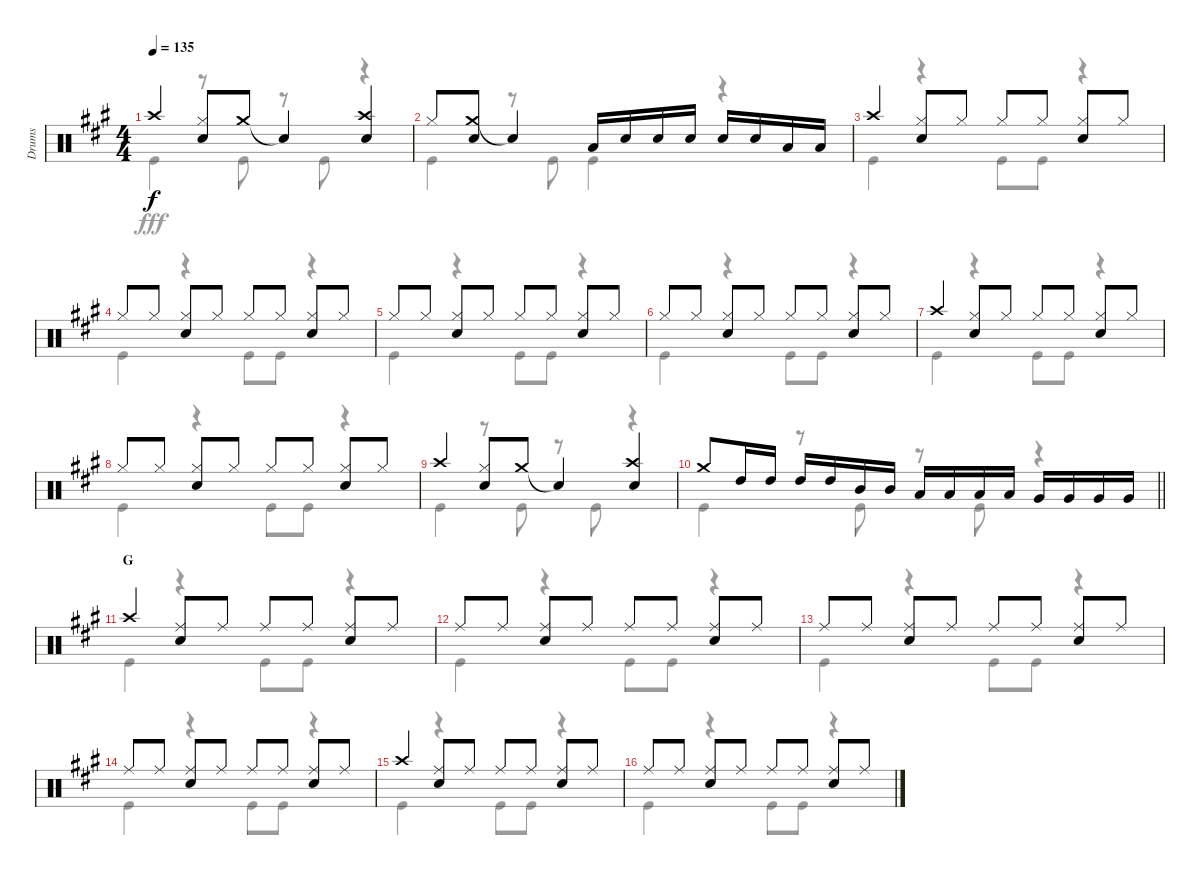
\track ("Drums" "Drums") {instrument percussion}
\staff {score}
\articulation defaults
\voice
\ts (4 4)
\tempo 135
\clef neutral
\ks a "Crash high (hit)".4{dy f}
("Hi-Hat (closed)" "Snare (hit) 2").8 "Crash medium (hit)".8 "Snare (hit)"{t}.4 ("Crash high (hit)" "Snare (hit) 2").4 |
"Hi-Hat (closed)".8 ("Crash medium (hit)" "Snare (hit) 2").8 "Snare (hit)"{t}.4 "Low Tom (hit)".16 "Snare (hit) 2".16 "Snare (hit) 2".16 "Snare (hit) 2".16 "Snare (hit) 2".16 "Snare (hit) 2".16 "Low Tom (hit)".16 "Low Tom (hit)".16 |
"Crash high (hit)".4 ("Hi-Hat (closed)" "Snare (hit) 2").8 "Hi-Hat (closed)".8 "Hi-Hat (closed)".8 "Hi-Hat (closed)".8 ("Hi-Hat (closed)" "Snare (hit) 2").8 "Hi-Hat (closed)".8 |
"Hi-Hat (closed)".8 "Hi-Hat (closed)".8 ("Hi-Hat (closed)" "Snare (hit) 2").8 "Hi-Hat (closed)".8 "Hi-Hat (closed)".8 "Hi-Hat (closed)".8 ("Hi-Hat (closed)" "Snare (hit) 2").8 "Hi-Hat (closed)".8 |
"Hi-Hat (closed)".8 "Hi-Hat (closed)".8 ("Hi-Hat (closed)" "Snare (hit) 2").8 "Hi-Hat (closed)".8 "Hi-Hat (closed)".8 "Hi-Hat (closed)".8 ("Hi-Hat (closed)" "Snare (hit) 2").8 "Hi-Hat (closed)".8 |
"Hi-Hat (closed)".8 "Hi-Hat (closed)".8 ("Hi-Hat (closed)" "Snare (hit) 2").8 "Hi-Hat (closed)".8 "Hi-Hat (closed)".8 "Hi-Hat (closed)".8 ("Hi-Hat (closed)" "Snare (hit) 2").8 "Hi-Hat (closed)".8 |
"Crash high (hit)".4 ("Hi-Hat (closed)" "Snare (hit) 2").8 "Hi-Hat (closed)".8 "Hi-Hat (closed)".8 "Hi-Hat (closed)".8 ("Hi-Hat (closed)" "Snare (hit) 2").8 "Hi-Hat (closed)".8 |
"Hi-Hat (closed)".8 "Hi-Hat (closed)".8 ("Hi-Hat (closed)" "Snare (hit) 2").8 "Hi-Hat (closed)".8 "Hi-Hat (closed)".8 "Hi-Hat (closed)".8 ("Hi-Hat (closed)" "Snare (hit) 2").8 "Hi-Hat (closed)".8 |
"Crash high (hit)".4 ("Hi-Hat (closed)" "Snare (hit) 2").8 "Crash medium (hit)".8 "Snare (hit)"{t}.4 ("Crash high (hit)" "Snare (hit) 2").4 |
\barLineRight lightlight "Crash medium (hit)".8 "High Tom (hit)".16 "High Tom (hit)".16 "High Tom (hit)".16 "High Tom (hit)".16 "Mid Tom (hit)".16 "Mid Tom (hit)".16 "Low Tom (hit)".16 "Low Tom (hit)".16 "Low Tom (hit)".16 "Low Tom (hit)".16 "Very Low Tom (hit)".16 "Very Low Tom (hit)".16 "Very Low Tom (hit)".16 "Very Low Tom (hit)".16
|
\section ("" "G")
"Crash high (hit)".4 ("Ride (middle)" "Snare (hit) 2").8 "Ride (middle)".8 "Ride (middle)".8 "Ride (middle)".8 ("Ride (middle)" "Snare (hit) 2").8 "Ride (middle)".8 |
"Ride (middle)".8 "Ride (middle)".8 ("Ride (middle)" "Snare (hit) 2").8 "Ride (middle)".8 "Ride (middle)".8 "Ride (middle)".8 ("Ride (middle)" "Snare (hit) 2").8 "Ride (middle)".8 |
"Ride (middle)".8 "Ride (middle)".8 ("Ride (middle)" "Snare (hit) 2").8 "Ride (middle)".8 "Ride (middle)".8 "Ride (middle)".8 ("Ride (middle)" "Snare (hit) 2").8 "Ride (middle)".8 |
"Ride (middle)".8 "Ride (middle)".8 ("Ride (middle)" "Snare (hit) 2").8 "Ride (middle)".8 "Ride (middle)".8 "Ride (middle)".8 ("Ride (middle)" "Snare (hit) 2").8 "Ride (middle)".8 |
"Crash high (hit)".4 ("Ride (middle)" "Snare (hit) 2").8 "Ride (middle)".8 "Ride (middle)".8 "Ride (middle)".8 ("Ride (middle)" "Snare (hit) 2").8 "Ride (middle)".8 |
"Ride (middle)".8 "Ride (middle)".8 ("Ride (middle)" "Snare (hit) 2").8 "Ride (middle)".8 "Ride (middle)".8 "Ride (middle)".8 ("Ride (middle)" "Snare (hit) 2").8 "Ride (middle)".8
\voice
\clef neutral
\ottava regular
\simile none
\ks a "Kick (hit)".4{dy fff}
r.8 "Kick (hit)".8 r.8 "Kick (hit)".8 r.4 |
"Kick (hit)".4 r.8 "Kick (hit)".8 "Kick (hit)".4 r.4 |
"Kick (hit)".4 r.4 "Kick (hit)".8 "Kick (hit)".8 r.4 |
"Kick (hit)".4 r.4 "Kick (hit)".8 "Kick (hit)".8 r.4 |
"Kick (hit)".4 r.4 "Kick (hit)".8 "Kick (hit)".8 r.4 |
"Kick (hit)".4 r.4 "Kick (hit)".8 "Kick (hit)".8 r.4 |
"Kick (hit)".4 r.4 "Kick (hit)".8 "Kick (hit)".8 r.4 |
"Kick (hit)".4 r.4 "Kick (hit)".8 "Kick (hit)".8 r.4 |
"Kick (hit)".4 r.8 "Kick (hit)".8 r.8 "Kick (hit)".8 r.4 |
\barLineRight lightlight "Kick (hit)".4
r.8 "Kick (hit)".8 r.8 "Kick (hit)".8 r.4 |
"Kick (hit)".4 r.4 "Kick (hit)".8 "Kick (hit)".8 r.4 |
"Kick (hit)".4 r.4 "Kick (hit)".8 "Kick (hit)".8 r.4 |
"Kick (hit)".4 r.4 "Kick (hit)".8 "Kick (hit)".8 r.4 |
"Kick (hit)".4 r.4 "Kick (hit)".8 "Kick (hit)".8 r.4 |
"Kick (hit)".4 r.4 "Kick (hit)".8 "Kick (hit)".8 r.4 |
"Kick (hit)".4 r.4 "Kick (hit)".8 "Kick (hit)".8 r.4
